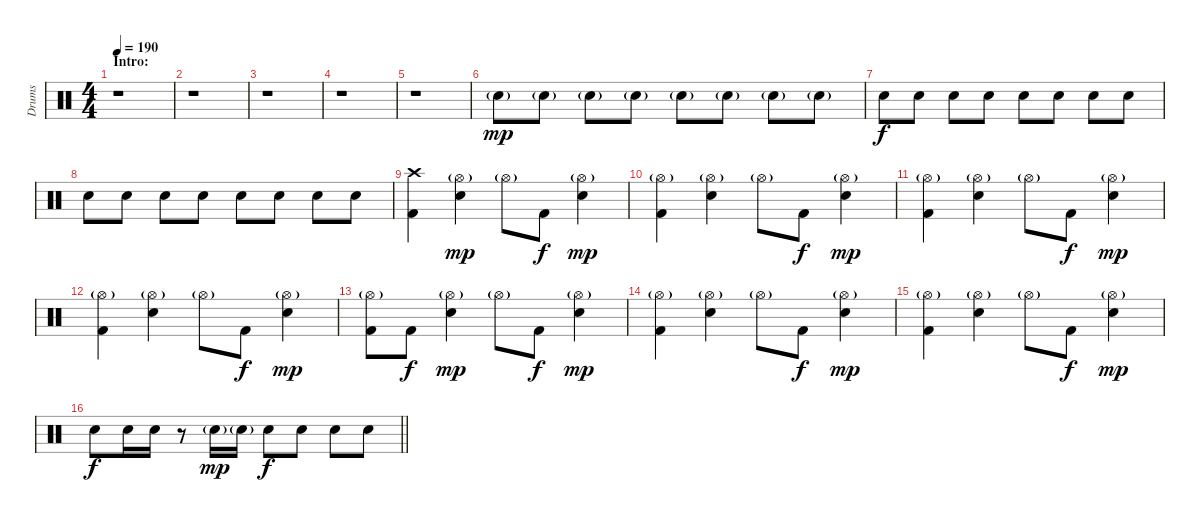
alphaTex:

\track ("Drums" "Drums") {instrument percussion}
\staff {score}
\articulation defaults
\ts (4 4)
\section ("" "Intro:")
\tempo 190
\clef neutral
\ks c
r.1{dy mp} |
r.1 |
r.1 |
r.1 |
r.1 |
"Electric Snare (hit)"{g}.8 "Electric Snare (hit)"{g}.8 "Electric Snare (hit)"{g}.8 "Electric Snare (hit)"{g}.8 "Electric Snare (hit)"{g}.8 "Electric Snare (hit)"{g}.8 "Electric Snare (hit)"{g}.8 "Electric Snare (hit)"{g}.8 |
"Electric Snare (hit)".8{dy f} "Electric Snare (hit)".8 "Electric Snare (hit)".8 "Electric Snare (hit)".8 "Electric Snare (hit)".8 "Electric Snare (hit)".8 "Electric Snare (hit)".8 "Electric Snare (hit)".8 |
"Electric Snare (hit)".8 "Electric Snare (hit)".8 "Electric Snare (hit)".8 "Electric Snare (hit)".8 "Electric Snare (hit)".8 "Electric Snare (hit)".8 "Electric Snare (hit)".8 "Electric Snare (hit)".8 |
("Crash high (hit)" "Kick (hit) 2").4 ("Hi-Hat (open)"{g} "Electric Snare (hit)").4{dy mp} "Hi-Hat (open)"{g}.8 "Kick (hit) 2".8{dy f} ("Hi-Hat (open)"{g} "Electric Snare (hit)").4{dy mp} |
("Hi-Hat (open)"{g} "Kick (hit) 2").4 ("Hi-Hat (open)"{g} "Electric Snare (hit)").4 "Hi-Hat (open)"{g}.8 "Kick (hit) 2".8{dy f} ("Hi-Hat (open)"{g} "Electric Snare (hit)").4{dy mp} |
("Hi-Hat (open)"{g} "Kick (hit) 2").4 ("Hi-Hat (open)"{g} "Electric Snare (hit)").4 "Hi-Hat (open)"{g}.8 "Kick (hit) 2".8{dy f} ("Hi-Hat (open)"{g} "Electric Snare (hit)").4{dy mp} |
("Hi-Hat (open)"{g} "Kick (hit) 2").4 ("Hi-Hat (open)"{g} "Electric Snare (hit)").4 "Hi-Hat (open)"{g}.8 "Kick (hit) 2".8{dy f} ("Hi-Hat (open)"{g} "Electric Snare (hit)").4{dy mp} |
("Hi-Hat (open)"{g} "Kick (hit) 2").8 "Kick (hit) 2".8{dy f} ("Hi-Hat (open)"{g} "Electric Snare (hit)").4{dy mp} "Hi-Hat (open)"{g}.8 "Kick (hit) 2".8{dy f} ("Hi-Hat (open)"{g} "Electric Snare (hit)").4{dy mp} |
("Hi-Hat (open)"{g} "Kick (hit) 2").4 ("Hi-Hat (open)"{g} "Electric Snare (hit)").4 "Hi-Hat (open)"{g}.8 "Kick (hit) 2".8{dy f} ("Hi-Hat (open)"{g} "Electric Snare (hit)").4{dy mp} |
("Hi-Hat (open)"{g} "Kick (hit) 2").4 ("Hi-Hat (open)"{g} "Electric Snare (hit)").4 "Hi-Hat (open)"{g}.8 "Kick (hit) 2".8{dy f} ("Hi-Hat (open)"{g} "Electric Snare (hit)").4{dy mp} |
\barLineRight lightlight "Electric Snare (hit)".8{dy f} "Electric Snare (hit)".16 "Electric Snare (hit)".16
r.8 "Electric Snare (hit)"{g}.16{dy mp} "Electric Snare (hit)"{g}.16 "Electric Snare (hit)".8{dy f} "Electric Snare (hit)".8 "Electric Snare (hit)".8 "Electric Snare (hit)".8
